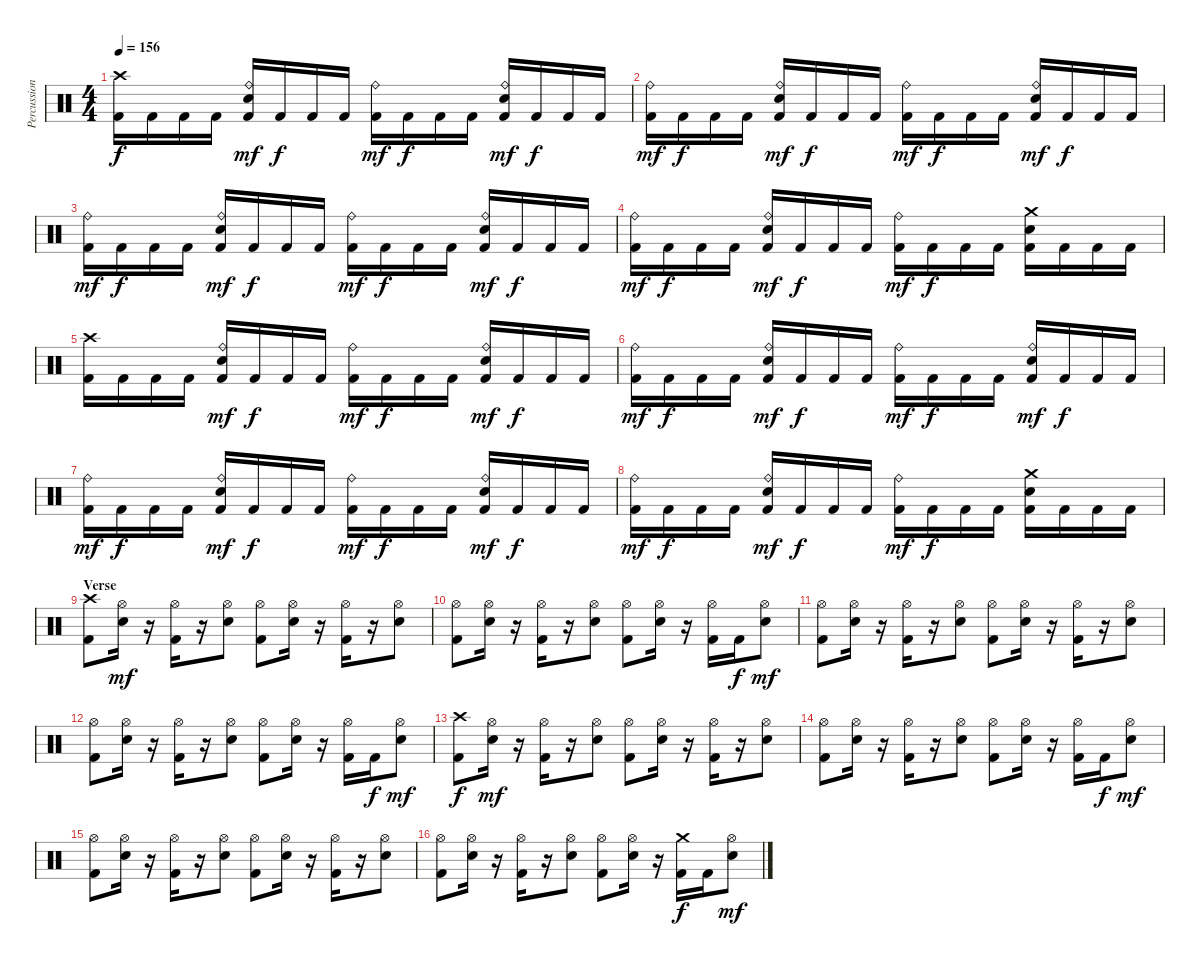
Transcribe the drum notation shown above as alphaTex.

\track ("Percussion" "Percussion") {instrument percussion}
\staff {score}
\articulation defaults
\ts (4 4)
\tempo 156
\clef neutral
\ks c
("Crash high (hit)" "Kick (hit) 2").16{dy f} "Kick (hit) 2".16 "Kick (hit) 2".16 "Kick (hit) 2".16 ("Ride (bell)" "Electric Snare (hit)" "Kick (hit) 2").16{dy mf} "Kick (hit) 2".16{dy f} "Kick (hit) 2".16 "Kick (hit) 2".16 ("Ride (bell)" "Kick (hit) 2").16{dy mf} "Kick (hit) 2".16{dy f} "Kick (hit) 2".16 "Kick (hit) 2".16 ("Ride (bell)" "Electric Snare (hit)" "Kick (hit) 2").16{dy mf} "Kick (hit) 2".16{dy f} "Kick (hit) 2".16 "Kick (hit) 2".16 |
("Ride (bell)" "Kick (hit) 2").16{dy mf} "Kick (hit) 2".16{dy f} "Kick (hit) 2".16 "Kick (hit) 2".16 ("Ride (bell)" "Electric Snare (hit)" "Kick (hit) 2").16{dy mf} "Kick (hit) 2".16{dy f} "Kick (hit) 2".16 "Kick (hit) 2".16 ("Ride (bell)" "Kick (hit) 2").16{dy mf} "Kick (hit) 2".16{dy f} "Kick (hit) 2".16 "Kick (hit) 2".16 ("Ride (bell)" "Electric Snare (hit)" "Kick (hit) 2").16{dy mf} "Kick (hit) 2".16{dy f} "Kick (hit) 2".16 "Kick (hit) 2".16 |
("Ride (bell)" "Kick (hit) 2").16{dy mf} "Kick (hit) 2".16{dy f} "Kick (hit) 2".16 "Kick (hit) 2".16 ("Ride (bell)" "Electric Snare (hit)" "Kick (hit) 2").16{dy mf} "Kick (hit) 2".16{dy f} "Kick (hit) 2".16 "Kick (hit) 2".16 ("Ride (bell)" "Kick (hit) 2").16{dy mf} "Kick (hit) 2".16{dy f} "Kick (hit) 2".16 "Kick (hit) 2".16 ("Ride (bell)" "Electric Snare (hit)" "Kick (hit) 2").16{dy mf} "Kick (hit) 2".16{dy f} "Kick (hit) 2".16 "Kick (hit) 2".16 |
("Ride (bell)" "Kick (hit) 2").16{dy mf} "Kick (hit) 2".16{dy f} "Kick (hit) 2".16 "Kick (hit) 2".16 ("Ride (bell)" "Electric Snare (hit)" "Kick (hit) 2").16{dy mf} "Kick (hit) 2".16{dy f} "Kick (hit) 2".16 "Kick (hit) 2".16 ("Ride (bell)" "Kick (hit) 2").16{dy mf} "Kick (hit) 2".16{dy f} "Kick (hit) 2".16 "Kick (hit) 2".16 ("Crash medium (hit)" "Electric Snare (hit)" "Kick (hit) 2").16 "Kick (hit) 2".16 "Kick (hit) 2".16 "Kick (hit) 2".16 |
("Crash high (hit)" "Kick (hit) 2").16 "Kick (hit) 2".16 "Kick (hit) 2".16 "Kick (hit) 2".16 ("Ride (bell)" "Electric Snare (hit)" "Kick (hit) 2").16{dy mf} "Kick (hit) 2".16{dy f} "Kick (hit) 2".16 "Kick (hit) 2".16 ("Ride (bell)" "Kick (hit) 2").16{dy mf} "Kick (hit) 2".16{dy f} "Kick (hit) 2".16 "Kick (hit) 2".16 ("Ride (bell)" "Electric Snare (hit)" "Kick (hit) 2").16{dy mf} "Kick (hit) 2".16{dy f} "Kick (hit) 2".16 "Kick (hit) 2".16 |
("Ride (bell)" "Kick (hit) 2").16{dy mf} "Kick (hit) 2".16{dy f} "Kick (hit) 2".16 "Kick (hit) 2".16 ("Ride (bell)" "Electric Snare (hit)" "Kick (hit) 2").16{dy mf} "Kick (hit) 2".16{dy f} "Kick (hit) 2".16 "Kick (hit) 2".16 ("Ride (bell)" "Kick (hit) 2").16{dy mf} "Kick (hit) 2".16{dy f} "Kick (hit) 2".16 "Kick (hit) 2".16 ("Ride (bell)" "Electric Snare (hit)" "Kick (hit) 2").16{dy mf} "Kick (hit) 2".16{dy f} "Kick (hit) 2".16 "Kick (hit) 2".16 |
("Ride (bell)" "Kick (hit) 2").16{dy mf} "Kick (hit) 2".16{dy f} "Kick (hit) 2".16 "Kick (hit) 2".16 ("Ride (bell)" "Electric Snare (hit)" "Kick (hit) 2").16{dy mf} "Kick (hit) 2".16{dy f} "Kick (hit) 2".16 "Kick (hit) 2".16 ("Ride (bell)" "Kick (hit) 2").16{dy mf} "Kick (hit) 2".16{dy f} "Kick (hit) 2".16 "Kick (hit) 2".16 ("Ride (bell)" "Electric Snare (hit)" "Kick (hit) 2").16{dy mf} "Kick (hit) 2".16{dy f} "Kick (hit) 2".16 "Kick (hit) 2".16 |
("Ride (bell)" "Kick (hit) 2").16{dy mf} "Kick (hit) 2".16{dy f} "Kick (hit) 2".16 "Kick (hit) 2".16 ("Ride (bell)" "Electric Snare (hit)" "Kick (hit) 2").16{dy mf} "Kick (hit) 2".16{dy f} "Kick (hit) 2".16 "Kick (hit) 2".16 ("Ride (bell)" "Kick (hit) 2").16{dy mf} "Kick (hit) 2".16{dy f} "Kick (hit) 2".16 "Kick (hit) 2".16 ("Crash medium (hit)" "Electric Snare (hit)" "Kick (hit) 2").16 "Kick (hit) 2".16 "Kick (hit) 2".16 "Kick (hit) 2".16 |
\section ("" "Verse")
("Crash high (hit)" "Kick (hit) 2").8 ("Hi-Hat (open)" "Electric Snare (hit)").16{dy mf} r.16 ("Hi-Hat (open)" "Kick (hit) 2").16 r.16 ("Hi-Hat (open)" "Electric Snare (hit)").8 ("Hi-Hat (open)" "Kick (hit) 2").8 ("Hi-Hat (open)" "Electric Snare (hit)").16 r.16 ("Hi-Hat (open)" "Kick (hit) 2").16 r.16 ("Hi-Hat (open)" "Electric Snare (hit)").8 |
("Hi-Hat (open)" "Kick (hit) 2").8 ("Hi-Hat (open)" "Electric Snare (hit)").16 r.16 ("Hi-Hat (open)" "Kick (hit) 2").16 r.16 ("Hi-Hat (open)" "Electric Snare (hit)").8 ("Hi-Hat (open)" "Kick (hit) 2").8 ("Hi-Hat (open)" "Electric Snare (hit)").16 r.16 ("Hi-Hat (open)" "Kick (hit) 2").16 "Kick (hit) 2".16{dy f} ("Hi-Hat (open)" "Electric Snare (hit)").8{dy mf} |
("Hi-Hat (open)" "Kick (hit) 2").8 ("Hi-Hat (open)" "Electric Snare (hit)").16 r.16 ("Hi-Hat (open)" "Kick (hit) 2").16 r.16 ("Hi-Hat (open)" "Electric Snare (hit)").8 ("Hi-Hat (open)" "Kick (hit) 2").8 ("Hi-Hat (open)" "Electric Snare (hit)").16 r.16 ("Hi-Hat (open)" "Kick (hit) 2").16 r.16 ("Hi-Hat (open)" "Electric Snare (hit)").8 |
("Hi-Hat (open)" "Kick (hit) 2").8 ("Hi-Hat (open)" "Electric Snare (hit)").16 r.16 ("Hi-Hat (open)" "Kick (hit) 2").16 r.16 ("Hi-Hat (open)" "Electric Snare (hit)").8 ("Hi-Hat (open)" "Kick (hit) 2").8 ("Hi-Hat (open)" "Electric Snare (hit)").16 r.16 ("Hi-Hat (open)" "Kick (hit) 2").16 "Kick (hit) 2".16{dy f} ("Hi-Hat (open)" "Electric Snare (hit)").8{dy mf} |
("Crash high (hit)" "Kick (hit) 2").8{dy f} ("Hi-Hat (open)" "Electric Snare (hit)").16{dy mf} r.16 ("Hi-Hat (open)" "Kick (hit) 2").16 r.16 ("Hi-Hat (open)" "Electric Snare (hit)").8 ("Hi-Hat (open)" "Kick (hit) 2").8 ("Hi-Hat (open)" "Electric Snare (hit)").16 r.16 ("Hi-Hat (open)" "Kick (hit) 2").16 r.16 ("Hi-Hat (open)" "Electric Snare (hit)").8 |
("Hi-Hat (open)" "Kick (hit) 2").8 ("Hi-Hat (open)" "Electric Snare (hit)").16 r.16 ("Hi-Hat (open)" "Kick (hit) 2").16 r.16 ("Hi-Hat (open)" "Electric Snare (hit)").8 ("Hi-Hat (open)" "Kick (hit) 2").8 ("Hi-Hat (open)" "Electric Snare (hit)").16 r.16 ("Hi-Hat (open)" "Kick (hit) 2").16 "Kick (hit) 2".16{dy f} ("Hi-Hat (open)" "Electric Snare (hit)").8{dy mf} |
("Hi-Hat (open)" "Kick (hit) 2").8 ("Hi-Hat (open)" "Electric Snare (hit)").16 r.16 ("Hi-Hat (open)" "Kick (hit) 2").16 r.16 ("Hi-Hat (open)" "Electric Snare (hit)").8 ("Hi-Hat (open)" "Kick (hit) 2").8 ("Hi-Hat (open)" "Electric Snare (hit)").16 r.16 ("Hi-Hat (open)" "Kick (hit) 2").16 r.16 ("Hi-Hat (open)" "Electric Snare (hit)").8 |
("Hi-Hat (open)" "Kick (hit) 2").8 ("Hi-Hat (open)" "Electric Snare (hit)").16 r.16 ("Hi-Hat (open)" "Kick (hit) 2").16 r.16 ("Hi-Hat (open)" "Electric Snare (hit)").8 ("Hi-Hat (open)" "Kick (hit) 2").8 ("Hi-Hat (open)" "Electric Snare (hit)").16 r.16 ("Crash medium (hit)" "Kick (hit) 2").16{dy f} "Kick (hit) 2".16 ("Hi-Hat (open)" "Electric Snare (hit)").8{dy mf}
